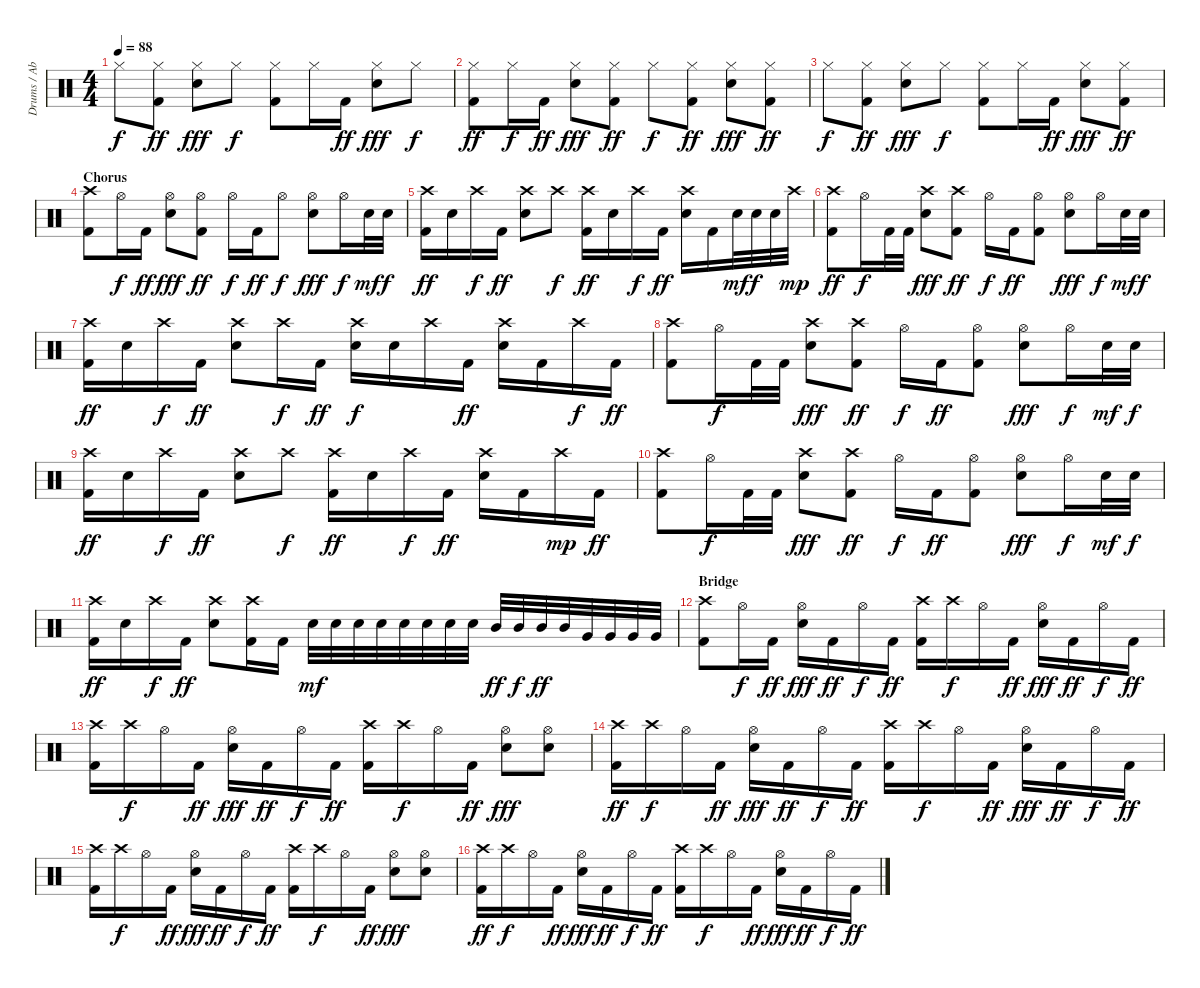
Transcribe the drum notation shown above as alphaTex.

\track ("Drums / Abe Cunningham" "Drums / Ab") {instrument percussion}
\staff {score}
\articulation defaults
\ts (4 4)
\tempo 88
\clef neutral
\ks c "Hi-Hat (closed)".8{dy f}
("Hi-Hat (closed)" "Kick (hit) 2").8{dy ff} ("Hi-Hat (closed)" "Electric Snare (hit)").8{dy fff} "Hi-Hat (closed)".8{dy f} ("Hi-Hat (closed)" "Kick (hit) 2").8 "Hi-Hat (closed)".16 "Kick (hit) 2".16{dy ff} ("Hi-Hat (closed)" "Electric Snare (hit)").8{dy fff} "Hi-Hat (closed)".8{dy f} |
("Hi-Hat (closed)" "Kick (hit) 2").8{dy ff} "Hi-Hat (closed)".16{dy f} "Kick (hit) 2".16{dy ff} ("Hi-Hat (closed)" "Electric Snare (hit)").8{dy fff} ("Hi-Hat (closed)" "Kick (hit) 2").8{dy ff} "Hi-Hat (closed)".8{dy f} ("Hi-Hat (closed)" "Kick (hit) 2").8{dy ff} ("Hi-Hat (closed)" "Electric Snare (hit)").8{dy fff} ("Hi-Hat (closed)" "Kick (hit) 2").8{dy ff} |
"Hi-Hat (closed)".8{dy f} ("Hi-Hat (closed)" "Kick (hit) 2").8{dy ff} ("Hi-Hat (closed)" "Electric Snare (hit)").8{dy fff} "Hi-Hat (closed)".8{dy f} ("Hi-Hat (closed)" "Kick (hit) 2").8 "Hi-Hat (closed)".16 "Kick (hit) 2".16{dy ff} ("Hi-Hat (closed)" "Electric Snare (hit)").8{dy fff} ("Hi-Hat (closed)" "Kick (hit) 2").8{dy ff} |
\section ("" "Chorus")
("Crash high (hit)" "Kick (hit) 2").8 "Hi-Hat (open)".16{dy f} "Kick (hit) 2".16{dy ff} ("Hi-Hat (open)" "Electric Snare (hit)").8{dy fff} ("Hi-Hat (open)" "Kick (hit) 2").8{dy ff} "Hi-Hat (open)".16{dy f} "Kick (hit) 2".16{dy ff} "Hi-Hat (open)".8{dy f} ("Hi-Hat (open)" "Electric Snare (hit)").8{dy fff} "Hi-Hat (open)".16{dy f} "Electric Snare (hit)".32{dy mf} "Electric Snare (hit)".32{dy f} |
("Crash high (hit)" "Kick (hit) 2").16{dy ff} "Electric Snare (hit)".16 "Crash high (hit)".16{dy f} "Kick (hit) 2".16{dy ff} ("Crash high (hit)" "Electric Snare (hit)").8 "Crash high (hit)".8{dy f} ("Crash high (hit)" "Kick (hit) 2").16{dy ff} "Electric Snare (hit)".16 "Crash high (hit)".16{dy f} "Kick (hit) 2".16{dy ff} ("Crash high (hit)" "Electric Snare (hit)").16 "Kick (hit) 2".16 "Electric Snare (hit)".32{dy mf} "Electric Snare (hit)".32{dy f} "Electric Snare (hit)".32 "Crash high (hit)".32{dy mp} |
("Crash high (hit)" "Kick (hit) 2").8{dy ff} "Hi-Hat (open)".16{dy f} "Kick (hit) 2".32 "Kick (hit) 2".32 ("Crash high (hit)" "Electric Snare (hit)").8{dy fff} ("Crash high (hit)" "Kick (hit) 2").8{dy ff} "Hi-Hat (open)".16{dy f} "Kick (hit) 2".16{dy ff} ("Hi-Hat (open)" "Kick (hit) 2").8 ("Hi-Hat (open)" "Electric Snare (hit)").8{dy fff} "Hi-Hat (open)".16{dy f} "Electric Snare (hit)".32{dy mf} "Electric Snare (hit)".32{dy f} |
("Crash high (hit)" "Kick (hit) 2").16{dy ff} "Electric Snare (hit)".16 "Crash high (hit)".16{dy f} "Kick (hit) 2".16{dy ff} ("Crash high (hit)" "Electric Snare (hit)").8 "Crash high (hit)".16{dy f} "Kick (hit) 2".16{dy ff} ("Crash high (hit)" "Electric Snare (hit)").16{dy f} "Electric Snare (hit)".16 "Crash high (hit)".16 "Kick (hit) 2".16{dy ff} ("Crash high (hit)" "Electric Snare (hit)").16 "Kick (hit) 2".16 "Crash high (hit)".16{dy f} "Kick (hit) 2".16{dy ff} |
("Crash high (hit)" "Kick (hit) 2").8 "Hi-Hat (open)".16{dy f} "Kick (hit) 2".32 "Kick (hit) 2".32 ("Crash high (hit)" "Electric Snare (hit)").8{dy fff} ("Crash high (hit)" "Kick (hit) 2").8{dy ff} "Hi-Hat (open)".16{dy f} "Kick (hit) 2".16{dy ff} ("Hi-Hat (open)" "Kick (hit) 2").8 ("Hi-Hat (open)" "Electric Snare (hit)").8{dy fff} "Hi-Hat (open)".16{dy f} "Electric Snare (hit)".32{dy mf} "Electric Snare (hit)".32{dy f} |
("Crash high (hit)" "Kick (hit) 2").16{dy ff} "Electric Snare (hit)".16 "Crash high (hit)".16{dy f} "Kick (hit) 2".16{dy ff} ("Crash high (hit)" "Electric Snare (hit)").8 "Crash high (hit)".8{dy f} ("Crash high (hit)" "Kick (hit) 2").16{dy ff} "Electric Snare (hit)".16 "Crash high (hit)".16{dy f} "Kick (hit) 2".16{dy ff} ("Crash high (hit)" "Electric Snare (hit)").16 "Kick (hit) 2".16 "Crash high (hit)".16{dy mp} "Kick (hit) 2".16{dy ff} |
("Crash high (hit)" "Kick (hit) 2").8 "Hi-Hat (open)".16{dy f} "Kick (hit) 2".32 "Kick (hit) 2".32 ("Crash high (hit)" "Electric Snare (hit)").8{dy fff} ("Crash high (hit)" "Kick (hit) 2").8{dy ff} "Hi-Hat (open)".16{dy f} "Kick (hit) 2".16{dy ff} ("Hi-Hat (open)" "Kick (hit) 2").8 ("Hi-Hat (open)" "Electric Snare (hit)").8{dy fff} "Hi-Hat (open)".16{dy f} "Electric Snare (hit)".32{dy mf} "Electric Snare (hit)".32{dy f} |
("Crash high (hit)" "Kick (hit) 2").16{dy ff} "Electric Snare (hit)".16 "Crash high (hit)".16{dy f} "Kick (hit) 2".16{dy ff} ("Crash high (hit)" "Electric Snare (hit)").8 ("Crash high (hit)" "Kick (hit) 2").16 "Kick (hit) 2".16 "Electric Snare (hit)".32{dy mf} "Electric Snare (hit)".32 "Electric Snare (hit)".32 "Electric Snare (hit)".32 "Electric Snare (hit)".32 "Electric Snare (hit)".32 "Electric Snare (hit)".32 "Electric Snare (hit)".32 "Mid Tom (hit)".32{dy ff} "Mid Tom (hit)".32{dy f} "Mid Tom (hit)".32{dy ff} "Mid Tom (hit)".32 "Very Low Tom (hit)".32 "Very Low Tom (hit)".32 "Very Low Tom (hit)".32 "Very Low Tom (hit)".32 |
\section ("" "Bridge")
("Crash high (hit)" "Kick (hit) 2").8 "Hi-Hat (open)".16{dy f} "Kick (hit) 2".16{dy ff} ("Hi-Hat (open)" "Electric Snare (hit)").16{dy fff} "Kick (hit) 2".16{dy ff} "Hi-Hat (open)".16{dy f} "Kick (hit) 2".16{dy ff} ("Crash high (hit)" "Kick (hit) 2").16 "Crash high (hit)".16{dy f} "Hi-Hat (open)".16 "Kick (hit) 2".16{dy ff} ("Hi-Hat (open)" "Electric Snare (hit)").16{dy fff} "Kick (hit) 2".16{dy ff} "Hi-Hat (open)".16{dy f} "Kick (hit) 2".16{dy ff} |
("Crash high (hit)" "Kick (hit) 2").16 "Crash high (hit)".16{dy f} "Hi-Hat (open)".16 "Kick (hit) 2".16{dy ff} ("Hi-Hat (open)" "Electric Snare (hit)").16{dy fff} "Kick (hit) 2".16{dy ff} "Hi-Hat (open)".16{dy f} "Kick (hit) 2".16{dy ff} ("Crash high (hit)" "Kick (hit) 2").16 "Crash high (hit)".16{dy f} "Hi-Hat (open)".16 "Kick (hit) 2".16{dy ff} ("Hi-Hat (open)" "Electric Snare (hit)").8{dy fff} ("Hi-Hat (open)" "Electric Snare (hit)").8 |
("Crash high (hit)" "Kick (hit) 2").16{dy ff} "Crash high (hit)".16{dy f} "Hi-Hat (open)".16 "Kick (hit) 2".16{dy ff} ("Hi-Hat (open)" "Electric Snare (hit)").16{dy fff} "Kick (hit) 2".16{dy ff} "Hi-Hat (open)".16{dy f} "Kick (hit) 2".16{dy ff} ("Crash high (hit)" "Kick (hit) 2").16 "Crash high (hit)".16{dy f} "Hi-Hat (open)".16 "Kick (hit) 2".16{dy ff} ("Hi-Hat (open)" "Electric Snare (hit)").16{dy fff} "Kick (hit) 2".16{dy ff} "Hi-Hat (open)".16{dy f} "Kick (hit) 2".16{dy ff} |
("Crash high (hit)" "Kick (hit) 2").16 "Crash high (hit)".16{dy f} "Hi-Hat (open)".16 "Kick (hit) 2".16{dy ff} ("Hi-Hat (open)" "Electric Snare (hit)").16{dy fff} "Kick (hit) 2".16{dy ff} "Hi-Hat (open)".16{dy f} "Kick (hit) 2".16{dy ff} ("Crash high (hit)" "Kick (hit) 2").16 "Crash high (hit)".16{dy f} "Hi-Hat (open)".16 "Kick (hit) 2".16{dy ff} ("Hi-Hat (open)" "Electric Snare (hit)").8{dy fff} ("Hi-Hat (open)" "Electric Snare (hit)").8 |
("Crash high (hit)" "Kick (hit) 2").16{dy ff} "Crash high (hit)".16{dy f} "Hi-Hat (open)".16 "Kick (hit) 2".16{dy ff} ("Hi-Hat (open)" "Electric Snare (hit)").16{dy fff} "Kick (hit) 2".16{dy ff} "Hi-Hat (open)".16{dy f} "Kick (hit) 2".16{dy ff} ("Crash high (hit)" "Kick (hit) 2").16 "Crash high (hit)".16{dy f} "Hi-Hat (open)".16 "Kick (hit) 2".16{dy ff} ("Hi-Hat (open)" "Electric Snare (hit)").16{dy fff} "Kick (hit) 2".16{dy ff} "Hi-Hat (open)".16{dy f} "Kick (hit) 2".16{dy ff}
